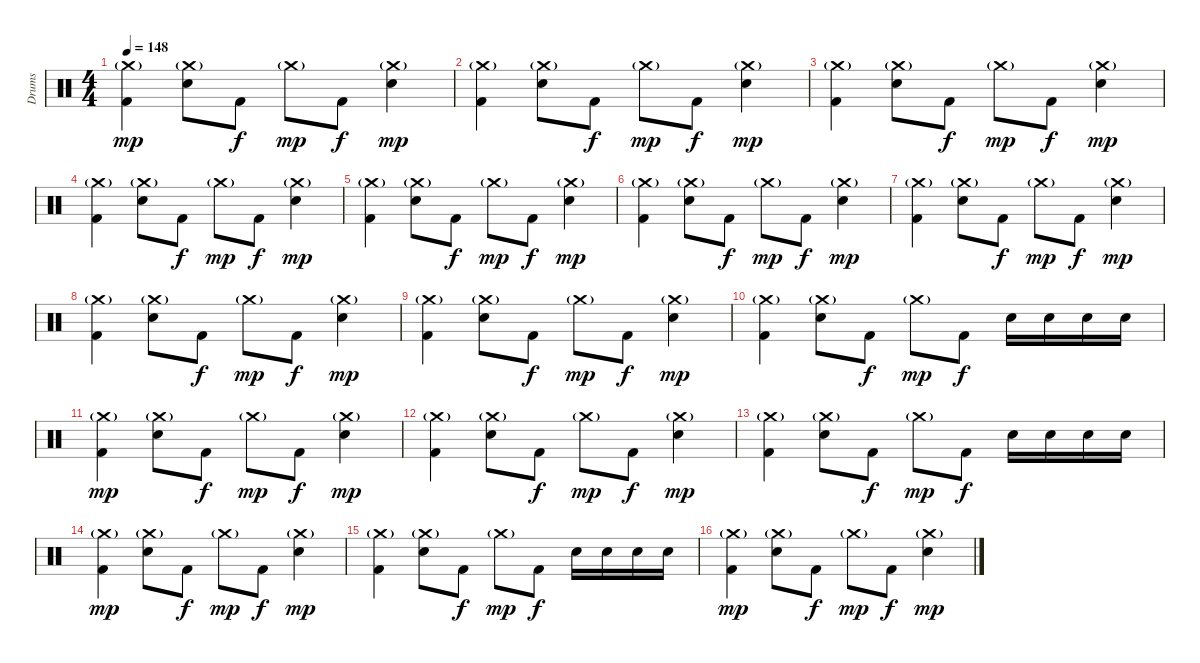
\track ("Drums" "Drums") {instrument percussion}
\staff {score}
\articulation defaults
\ts (4 4)
\tempo 148
\clef neutral
\ks c
("Crash medium (hit)"{g} "Kick (hit) 2").4{dy mp volume 16} ("Crash medium (hit)"{g} "Snare (hit) 2").8 "Kick (hit) 2".8{dy f} "Crash medium (hit)"{g}.8{dy mp} "Kick (hit) 2".8{dy f} ("Crash medium (hit)"{g} "Snare (hit) 2").4{dy mp} |
("Crash medium (hit)"{g} "Kick (hit) 2").4 ("Crash medium (hit)"{g} "Snare (hit) 2").8 "Kick (hit) 2".8{dy f} "Crash medium (hit)"{g}.8{dy mp} "Kick (hit) 2".8{dy f} ("Crash medium (hit)"{g} "Snare (hit) 2").4{dy mp} |
("Crash medium (hit)"{g} "Kick (hit) 2").4 ("Crash medium (hit)"{g} "Snare (hit) 2").8 "Kick (hit) 2".8{dy f} "Crash medium (hit)"{g}.8{dy mp} "Kick (hit) 2".8{dy f} ("Crash medium (hit)"{g} "Snare (hit) 2").4{dy mp} |
("Crash medium (hit)"{g} "Kick (hit) 2").4 ("Crash medium (hit)"{g} "Snare (hit) 2").8 "Kick (hit) 2".8{dy f} "Crash medium (hit)"{g}.8{dy mp} "Kick (hit) 2".8{dy f} ("Crash medium (hit)"{g} "Snare (hit) 2").4{dy mp} |
("Crash medium (hit)"{g} "Kick (hit) 2").4 ("Crash medium (hit)"{g} "Snare (hit) 2").8 "Kick (hit) 2".8{dy f} "Crash medium (hit)"{g}.8{dy mp} "Kick (hit) 2".8{dy f} ("Crash medium (hit)"{g} "Snare (hit) 2").4{dy mp} |
("Crash medium (hit)"{g} "Kick (hit) 2").4 ("Crash medium (hit)"{g} "Snare (hit) 2").8 "Kick (hit) 2".8{dy f} "Crash medium (hit)"{g}.8{dy mp} "Kick (hit) 2".8{dy f} ("Crash medium (hit)"{g} "Snare (hit) 2").4{dy mp} |
("Crash medium (hit)"{g} "Kick (hit) 2").4 ("Crash medium (hit)"{g} "Snare (hit) 2").8 "Kick (hit) 2".8{dy f} "Crash medium (hit)"{g}.8{dy mp} "Kick (hit) 2".8{dy f} ("Crash medium (hit)"{g} "Snare (hit) 2").4{dy mp} |
("Crash medium (hit)"{g} "Kick (hit) 2").4 ("Crash medium (hit)"{g} "Snare (hit) 2").8 "Kick (hit) 2".8{dy f} "Crash medium (hit)"{g}.8{dy mp} "Kick (hit) 2".8{dy f} ("Crash medium (hit)"{g} "Snare (hit) 2").4{dy mp} |
("Crash medium (hit)"{g} "Kick (hit) 2").4 ("Crash medium (hit)"{g} "Snare (hit) 2").8 "Kick (hit) 2".8{dy f} "Crash medium (hit)"{g}.8{dy mp} "Kick (hit) 2".8{dy f} ("Crash medium (hit)"{g} "Snare (hit) 2").4{dy mp} |
("Crash medium (hit)"{g} "Kick (hit) 2").4 ("Crash medium (hit)"{g} "Snare (hit) 2").8 "Kick (hit) 2".8{dy f} "Crash medium (hit)"{g}.8{dy mp} "Kick (hit) 2".8{dy f} "Snare (hit) 2".16 "Snare (hit) 2".16 "Snare (hit) 2".16 "Snare (hit) 2".16 |
("Crash medium (hit)"{g} "Kick (hit) 2").4{dy mp} ("Crash medium (hit)"{g} "Snare (hit) 2").8 "Kick (hit) 2".8{dy f} "Crash medium (hit)"{g}.8{dy mp} "Kick (hit) 2".8{dy f} ("Crash medium (hit)"{g} "Snare (hit) 2").4{dy mp} |
("Crash medium (hit)"{g} "Kick (hit) 2").4 ("Crash medium (hit)"{g} "Snare (hit) 2").8 "Kick (hit) 2".8{dy f} "Crash medium (hit)"{g}.8{dy mp} "Kick (hit) 2".8{dy f} ("Crash medium (hit)"{g} "Snare (hit) 2").4{dy mp} |
("Crash medium (hit)"{g} "Kick (hit) 2").4 ("Crash medium (hit)"{g} "Snare (hit) 2").8 "Kick (hit) 2".8{dy f} "Crash medium (hit)"{g}.8{dy mp} "Kick (hit) 2".8{dy f} "Snare (hit) 2".16 "Snare (hit) 2".16 "Snare (hit) 2".16 "Snare (hit) 2".16 |
("Crash medium (hit)"{g} "Kick (hit) 2").4{dy mp} ("Crash medium (hit)"{g} "Snare (hit) 2").8 "Kick (hit) 2".8{dy f} "Crash medium (hit)"{g}.8{dy mp} "Kick (hit) 2".8{dy f} ("Crash medium (hit)"{g} "Snare (hit) 2").4{dy mp} |
("Crash medium (hit)"{g} "Kick (hit) 2").4 ("Crash medium (hit)"{g} "Snare (hit) 2").8 "Kick (hit) 2".8{dy f} "Crash medium (hit)"{g}.8{dy mp} "Kick (hit) 2".8{dy f} "Snare (hit) 2".16 "Snare (hit) 2".16 "Snare (hit) 2".16 "Snare (hit) 2".16 |
("Crash medium (hit)"{g} "Kick (hit) 2").4{dy mp} ("Crash medium (hit)"{g} "Snare (hit) 2").8 "Kick (hit) 2".8{dy f} "Crash medium (hit)"{g}.8{dy mp} "Kick (hit) 2".8{dy f} ("Crash medium (hit)"{g} "Snare (hit) 2").4{dy mp}
